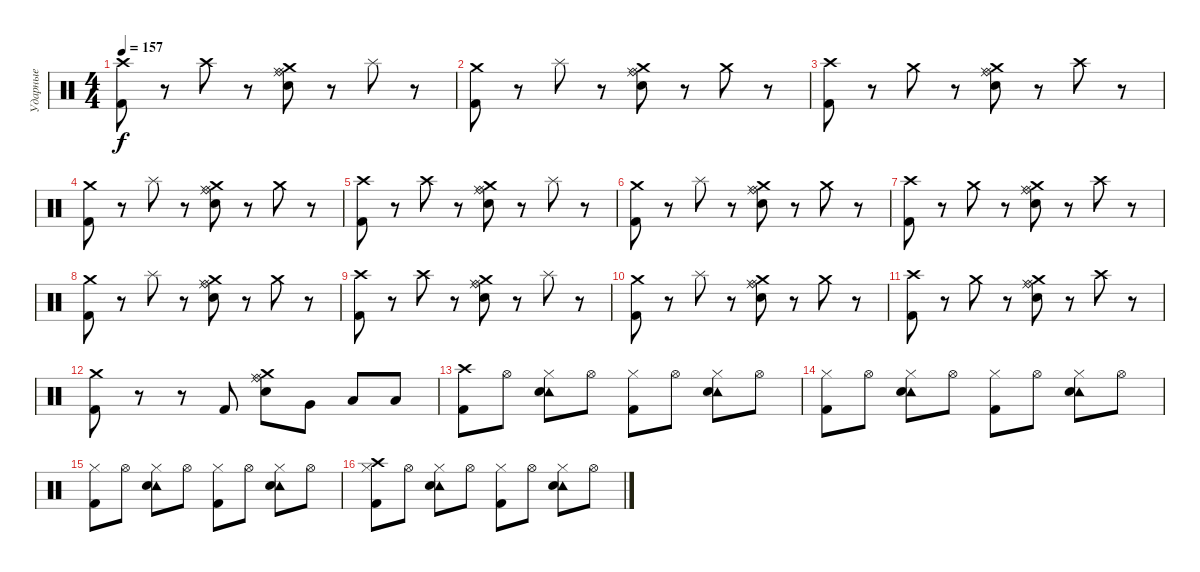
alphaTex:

\track ("Ударные" "Ударные") {instrument percussion}
\staff {score}
\articulation defaults
\ts (4 4)
\tempo 157
\clef neutral
\ks c
("Crash high (hit)" "Kick (hit) 2").8{dy f} r.8 "Crash high (hit)".8 r.8 ("Crash medium (hit)" "Ride (bell)" "Electric Snare (hit)" "Ride (middle)").8 r.8 "Splash (hit)".8 r.8 |
("Crash medium (hit)" "Kick (hit) 2").8 r.8 "Splash (hit)".8 r.8 ("Crash medium (hit)" "Ride (bell)" "Electric Snare (hit)" "Ride (middle)").8 r.8 "Crash medium (hit)".8 r.8 |
("Crash high (hit)" "Kick (hit) 2").8 r.8 "Crash medium (hit)".8 r.8 ("Crash medium (hit)" "Ride (bell)" "Electric Snare (hit)" "Ride (middle)").8 r.8 "Crash high (hit)".8 r.8 |
("Crash medium (hit)" "Kick (hit) 2").8 r.8 "Splash (hit)".8 r.8 ("Crash medium (hit)" "Ride (bell)" "Electric Snare (hit)" "Ride (middle)").8 r.8 "Crash medium (hit)".8 r.8 |
("Crash high (hit)" "Kick (hit) 2").8 r.8 "Crash high (hit)".8 r.8 ("Crash medium (hit)" "Ride (bell)" "Electric Snare (hit)" "Ride (middle)").8 r.8 "Splash (hit)".8 r.8 |
("Crash medium (hit)" "Kick (hit) 2").8 r.8 "Splash (hit)".8 r.8 ("Crash medium (hit)" "Ride (bell)" "Electric Snare (hit)" "Ride (middle)").8 r.8 "Crash medium (hit)".8 r.8 |
("Crash high (hit)" "Kick (hit) 2").8 r.8 "Crash medium (hit)".8 r.8 ("Crash medium (hit)" "Ride (bell)" "Electric Snare (hit)" "Ride (middle)").8 r.8 "Crash high (hit)".8 r.8 |
("Crash medium (hit)" "Kick (hit) 2").8 r.8 "Splash (hit)".8 r.8 ("Crash medium (hit)" "Ride (bell)" "Electric Snare (hit)" "Ride (middle)").8 r.8 "Crash medium (hit)".8 r.8 |
("Crash high (hit)" "Kick (hit) 2").8 r.8 "Crash high (hit)".8 r.8 ("Crash medium (hit)" "Ride (bell)" "Electric Snare (hit)" "Ride (middle)").8 r.8 "Splash (hit)".8 r.8 |
("Crash medium (hit)" "Kick (hit) 2").8 r.8 "Splash (hit)".8 r.8 ("Crash medium (hit)" "Ride (bell)" "Electric Snare (hit)" "Ride (middle)").8 r.8 "Crash medium (hit)".8 r.8 |
("Crash high (hit)" "Kick (hit) 2").8 r.8 "Crash medium (hit)".8 r.8 ("Crash medium (hit)" "Ride (bell)" "Electric Snare (hit)" "Ride (middle)").8 r.8 "Crash high (hit)".8 r.8 |
("Crash medium (hit)" "Kick (hit) 2").8 r.8 r.8 "Kick (hit) 2".8 ("Crash medium (hit)" "Ride (bell)" "Electric Snare (hit)" "Ride (middle)").8 "Very Low Tom (hit)".8 "Low Tom (hit)".8 "Low Floor Tom (hit)".8 |
("Crash high (hit)" "Kick (hit) 2").8 "Hi-Hat (open)".8 ("Tambourine (hit)" "Electric Snare (hit)" "Hi-Hat (closed)").8 "Hi-Hat (open)".8 ("Hi-Hat (closed)" "Kick (hit) 2").8 "Hi-Hat (open)".8 ("Tambourine (hit)" "Electric Snare (hit)" "Hi-Hat (closed)").8 "Hi-Hat (open)".8 |
("Hi-Hat (closed)" "Kick (hit) 2").8 "Hi-Hat (open)".8 ("Tambourine (hit)" "Electric Snare (hit)" "Hi-Hat (closed)").8 "Hi-Hat (open)".8 ("Hi-Hat (closed)" "Kick (hit) 2").8 "Hi-Hat (open)".8 ("Tambourine (hit)" "Electric Snare (hit)" "Hi-Hat (closed)").8 "Hi-Hat (open)".8 |
("Hi-Hat (closed)" "Kick (hit) 2").8 "Hi-Hat (open)".8 ("Tambourine (hit)" "Electric Snare (hit)" "Hi-Hat (closed)").8 "Hi-Hat (open)".8 ("Hi-Hat (closed)" "Kick (hit) 2").8 "Hi-Hat (open)".8 ("Tambourine (hit)" "Electric Snare (hit)" "Hi-Hat (closed)").8 "Hi-Hat (open)".8 |
("Crash high (hit)" "Hi-Hat (closed)" "Kick (hit) 2").8 "Hi-Hat (open)".8 ("Tambourine (hit)" "Electric Snare (hit)" "Hi-Hat (closed)").8 "Hi-Hat (open)".8 ("Hi-Hat (closed)" "Kick (hit) 2").8 "Hi-Hat (open)".8 ("Tambourine (hit)" "Electric Snare (hit)" "Hi-Hat (closed)").8 "Hi-Hat (open)".8
